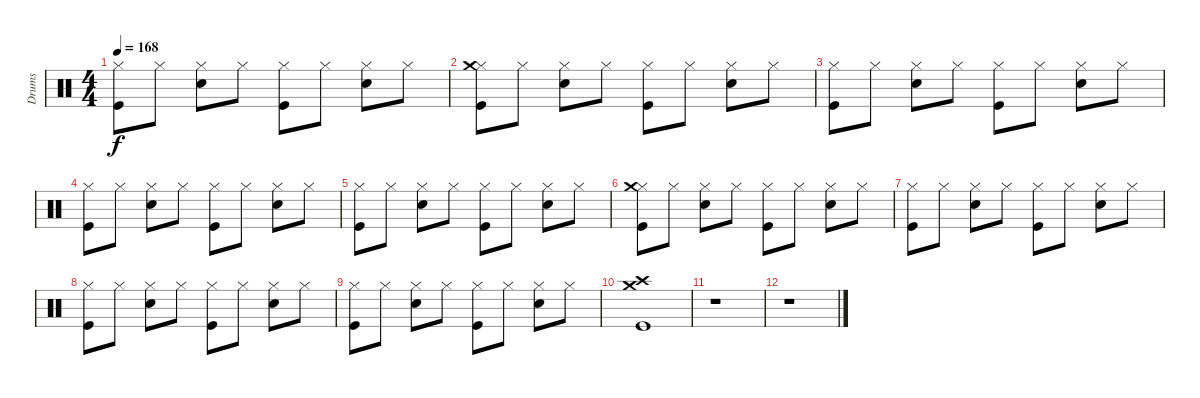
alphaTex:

\track ("Drums" "Drums") {instrument percussion}
\staff {score}
\articulation defaults
\ts (4 4)
\tempo 168
\clef neutral
\ks c
("Kick (hit)" "Hi-Hat (closed)").8{dy f} "Hi-Hat (closed)".8 ("Snare (hit) 2" "Hi-Hat (closed)").8 "Hi-Hat (closed)".8 ("Kick (hit)" "Hi-Hat (closed)").8 "Hi-Hat (closed)".8 ("Snare (hit) 2" "Hi-Hat (closed)").8 "Hi-Hat (closed)".8 |
("Kick (hit)" "Hi-Hat (closed)" "Crash medium (hit)").8 "Hi-Hat (closed)".8 ("Snare (hit) 2" "Hi-Hat (closed)").8 "Hi-Hat (closed)".8 ("Kick (hit)" "Hi-Hat (closed)").8 "Hi-Hat (closed)".8 ("Snare (hit) 2" "Hi-Hat (closed)").8 "Hi-Hat (closed)".8 |
("Kick (hit)" "Hi-Hat (closed)").8 "Hi-Hat (closed)".8 ("Snare (hit) 2" "Hi-Hat (closed)").8 "Hi-Hat (closed)".8 ("Kick (hit)" "Hi-Hat (closed)").8 "Hi-Hat (closed)".8 ("Snare (hit) 2" "Hi-Hat (closed)").8 "Hi-Hat (closed)".8 |
("Kick (hit)" "Hi-Hat (closed)").8 "Hi-Hat (closed)".8 ("Snare (hit) 2" "Hi-Hat (closed)").8 "Hi-Hat (closed)".8 ("Kick (hit)" "Hi-Hat (closed)").8 "Hi-Hat (closed)".8 ("Snare (hit) 2" "Hi-Hat (closed)").8 "Hi-Hat (closed)".8 |
("Kick (hit)" "Hi-Hat (closed)").8 "Hi-Hat (closed)".8 ("Snare (hit) 2" "Hi-Hat (closed)").8 "Hi-Hat (closed)".8 ("Kick (hit)" "Hi-Hat (closed)").8 "Hi-Hat (closed)".8 ("Snare (hit) 2" "Hi-Hat (closed)").8 "Hi-Hat (closed)".8 |
("Kick (hit)" "Hi-Hat (closed)" "Crash medium (hit)").8 "Hi-Hat (closed)".8 ("Snare (hit) 2" "Hi-Hat (closed)").8 "Hi-Hat (closed)".8 ("Kick (hit)" "Hi-Hat (closed)").8 "Hi-Hat (closed)".8 ("Snare (hit) 2" "Hi-Hat (closed)").8 "Hi-Hat (closed)".8 |
("Kick (hit)" "Hi-Hat (closed)").8 "Hi-Hat (closed)".8 ("Snare (hit) 2" "Hi-Hat (closed)").8 "Hi-Hat (closed)".8 ("Kick (hit)" "Hi-Hat (closed)").8 "Hi-Hat (closed)".8 ("Snare (hit) 2" "Hi-Hat (closed)").8 "Hi-Hat (closed)".8 |
("Kick (hit)" "Hi-Hat (closed)").8 "Hi-Hat (closed)".8 ("Snare (hit) 2" "Hi-Hat (closed)").8 "Hi-Hat (closed)".8 ("Kick (hit)" "Hi-Hat (closed)").8 "Hi-Hat (closed)".8 ("Snare (hit) 2" "Hi-Hat (closed)").8 "Hi-Hat (closed)".8 |
("Kick (hit)" "Hi-Hat (closed)").8 "Hi-Hat (closed)".8 ("Snare (hit) 2" "Hi-Hat (closed)").8 "Hi-Hat (closed)".8 ("Kick (hit)" "Hi-Hat (closed)").8 "Hi-Hat (closed)".8 ("Snare (hit) 2" "Hi-Hat (closed)").8 "Hi-Hat (closed)".8 |
("Kick (hit)" "Crash medium (hit)" "Crash high (hit)").1 |
r.1 |
r.1
